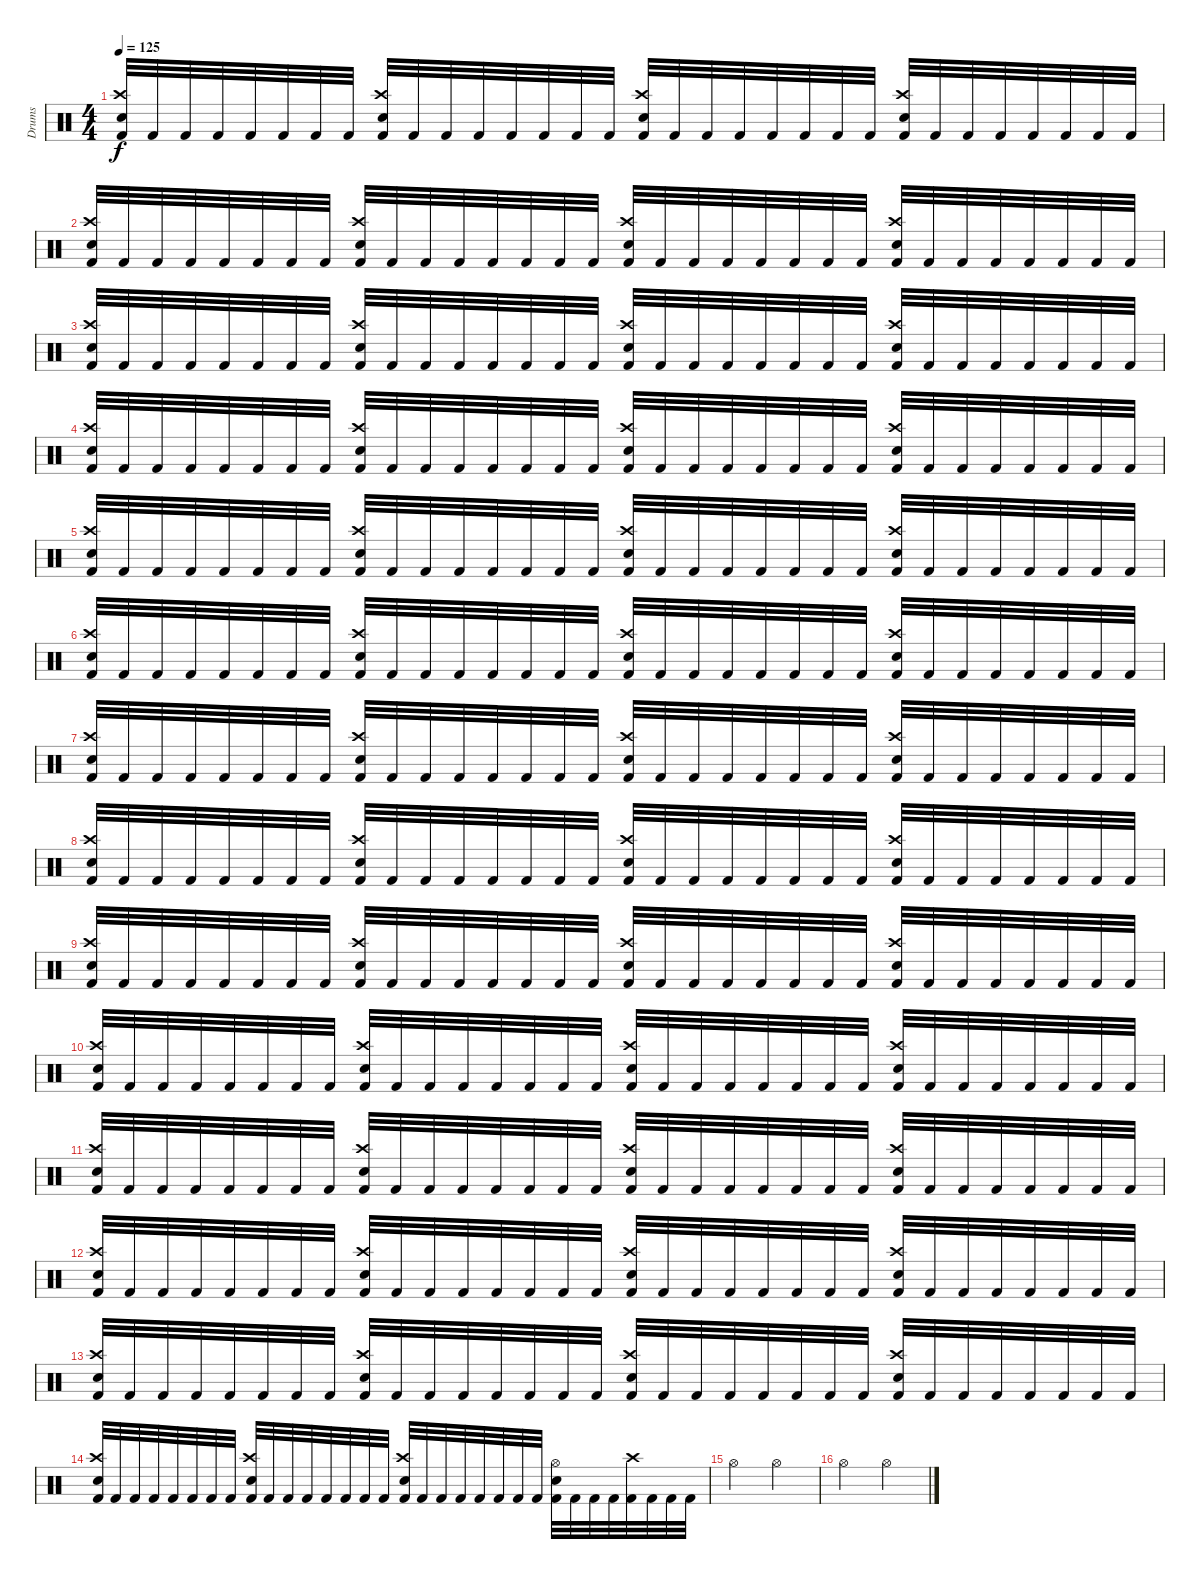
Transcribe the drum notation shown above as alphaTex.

\track ("Drums" "Drums") {instrument percussion}
\staff {score}
\articulation defaults
\ts (4 4)
\tempo 125
\clef neutral
\ks c
("Kick (hit) 2" "Crash high (hit)" "Snare (hit) 2").32{dy f} "Kick (hit) 2".32 "Kick (hit) 2".32 "Kick (hit) 2".32 "Kick (hit) 2".32 "Kick (hit) 2".32 "Kick (hit) 2".32 "Kick (hit) 2".32 ("Kick (hit) 2" "Crash high (hit)" "Snare (hit) 2").32 "Kick (hit) 2".32 "Kick (hit) 2".32 "Kick (hit) 2".32 "Kick (hit) 2".32 "Kick (hit) 2".32 "Kick (hit) 2".32 "Kick (hit) 2".32 ("Kick (hit) 2" "Crash high (hit)" "Snare (hit) 2").32 "Kick (hit) 2".32 "Kick (hit) 2".32 "Kick (hit) 2".32 "Kick (hit) 2".32 "Kick (hit) 2".32 "Kick (hit) 2".32 "Kick (hit) 2".32 ("Kick (hit) 2" "Crash high (hit)" "Snare (hit) 2").32 "Kick (hit) 2".32 "Kick (hit) 2".32 "Kick (hit) 2".32 "Kick (hit) 2".32 "Kick (hit) 2".32 "Kick (hit) 2".32 "Kick (hit) 2".32 |
("Kick (hit) 2" "Crash high (hit)" "Snare (hit) 2").32 "Kick (hit) 2".32 "Kick (hit) 2".32 "Kick (hit) 2".32 "Kick (hit) 2".32 "Kick (hit) 2".32 "Kick (hit) 2".32 "Kick (hit) 2".32 ("Kick (hit) 2" "Crash high (hit)" "Snare (hit) 2").32 "Kick (hit) 2".32 "Kick (hit) 2".32 "Kick (hit) 2".32 "Kick (hit) 2".32 "Kick (hit) 2".32 "Kick (hit) 2".32 "Kick (hit) 2".32 ("Kick (hit) 2" "Crash high (hit)" "Snare (hit) 2").32 "Kick (hit) 2".32 "Kick (hit) 2".32 "Kick (hit) 2".32 "Kick (hit) 2".32 "Kick (hit) 2".32 "Kick (hit) 2".32 "Kick (hit) 2".32 ("Kick (hit) 2" "Crash high (hit)" "Snare (hit) 2").32 "Kick (hit) 2".32 "Kick (hit) 2".32 "Kick (hit) 2".32 "Kick (hit) 2".32 "Kick (hit) 2".32 "Kick (hit) 2".32 "Kick (hit) 2".32 |
("Kick (hit) 2" "Crash high (hit)" "Snare (hit) 2").32 "Kick (hit) 2".32 "Kick (hit) 2".32 "Kick (hit) 2".32 "Kick (hit) 2".32 "Kick (hit) 2".32 "Kick (hit) 2".32 "Kick (hit) 2".32 ("Kick (hit) 2" "Crash high (hit)" "Snare (hit) 2").32 "Kick (hit) 2".32 "Kick (hit) 2".32 "Kick (hit) 2".32 "Kick (hit) 2".32 "Kick (hit) 2".32 "Kick (hit) 2".32 "Kick (hit) 2".32 ("Kick (hit) 2" "Crash high (hit)" "Snare (hit) 2").32 "Kick (hit) 2".32 "Kick (hit) 2".32 "Kick (hit) 2".32 "Kick (hit) 2".32 "Kick (hit) 2".32 "Kick (hit) 2".32 "Kick (hit) 2".32 ("Kick (hit) 2" "Crash high (hit)" "Snare (hit) 2").32 "Kick (hit) 2".32 "Kick (hit) 2".32 "Kick (hit) 2".32 "Kick (hit) 2".32 "Kick (hit) 2".32 "Kick (hit) 2".32 "Kick (hit) 2".32 |
("Kick (hit) 2" "Crash high (hit)" "Snare (hit) 2").32 "Kick (hit) 2".32 "Kick (hit) 2".32 "Kick (hit) 2".32 "Kick (hit) 2".32 "Kick (hit) 2".32 "Kick (hit) 2".32 "Kick (hit) 2".32 ("Kick (hit) 2" "Crash high (hit)" "Snare (hit) 2").32 "Kick (hit) 2".32 "Kick (hit) 2".32 "Kick (hit) 2".32 "Kick (hit) 2".32 "Kick (hit) 2".32 "Kick (hit) 2".32 "Kick (hit) 2".32 ("Kick (hit) 2" "Crash high (hit)" "Snare (hit) 2").32 "Kick (hit) 2".32 "Kick (hit) 2".32 "Kick (hit) 2".32 "Kick (hit) 2".32 "Kick (hit) 2".32 "Kick (hit) 2".32 "Kick (hit) 2".32 ("Kick (hit) 2" "Crash high (hit)" "Snare (hit) 2").32 "Kick (hit) 2".32 "Kick (hit) 2".32 "Kick (hit) 2".32 "Kick (hit) 2".32 "Kick (hit) 2".32 "Kick (hit) 2".32 "Kick (hit) 2".32 |
("Kick (hit) 2" "Crash high (hit)" "Snare (hit) 2").32 "Kick (hit) 2".32 "Kick (hit) 2".32 "Kick (hit) 2".32 "Kick (hit) 2".32 "Kick (hit) 2".32 "Kick (hit) 2".32 "Kick (hit) 2".32 ("Kick (hit) 2" "Crash high (hit)" "Snare (hit) 2").32 "Kick (hit) 2".32 "Kick (hit) 2".32 "Kick (hit) 2".32 "Kick (hit) 2".32 "Kick (hit) 2".32 "Kick (hit) 2".32 "Kick (hit) 2".32 ("Kick (hit) 2" "Crash high (hit)" "Snare (hit) 2").32 "Kick (hit) 2".32 "Kick (hit) 2".32 "Kick (hit) 2".32 "Kick (hit) 2".32 "Kick (hit) 2".32 "Kick (hit) 2".32 "Kick (hit) 2".32 ("Kick (hit) 2" "Crash high (hit)" "Snare (hit) 2").32 "Kick (hit) 2".32 "Kick (hit) 2".32 "Kick (hit) 2".32 "Kick (hit) 2".32 "Kick (hit) 2".32 "Kick (hit) 2".32 "Kick (hit) 2".32 |
("Kick (hit) 2" "Crash high (hit)" "Snare (hit) 2").32 "Kick (hit) 2".32 "Kick (hit) 2".32 "Kick (hit) 2".32 "Kick (hit) 2".32 "Kick (hit) 2".32 "Kick (hit) 2".32 "Kick (hit) 2".32 ("Kick (hit) 2" "Crash high (hit)" "Snare (hit) 2").32 "Kick (hit) 2".32 "Kick (hit) 2".32 "Kick (hit) 2".32 "Kick (hit) 2".32 "Kick (hit) 2".32 "Kick (hit) 2".32 "Kick (hit) 2".32 ("Kick (hit) 2" "Crash high (hit)" "Snare (hit) 2").32 "Kick (hit) 2".32 "Kick (hit) 2".32 "Kick (hit) 2".32 "Kick (hit) 2".32 "Kick (hit) 2".32 "Kick (hit) 2".32 "Kick (hit) 2".32 ("Kick (hit) 2" "Crash high (hit)" "Snare (hit) 2").32 "Kick (hit) 2".32 "Kick (hit) 2".32 "Kick (hit) 2".32 "Kick (hit) 2".32 "Kick (hit) 2".32 "Kick (hit) 2".32 "Kick (hit) 2".32 |
("Kick (hit) 2" "Crash high (hit)" "Snare (hit) 2").32 "Kick (hit) 2".32 "Kick (hit) 2".32 "Kick (hit) 2".32 "Kick (hit) 2".32 "Kick (hit) 2".32 "Kick (hit) 2".32 "Kick (hit) 2".32 ("Kick (hit) 2" "Crash high (hit)" "Snare (hit) 2").32 "Kick (hit) 2".32 "Kick (hit) 2".32 "Kick (hit) 2".32 "Kick (hit) 2".32 "Kick (hit) 2".32 "Kick (hit) 2".32 "Kick (hit) 2".32 ("Kick (hit) 2" "Crash high (hit)" "Snare (hit) 2").32 "Kick (hit) 2".32 "Kick (hit) 2".32 "Kick (hit) 2".32 "Kick (hit) 2".32 "Kick (hit) 2".32 "Kick (hit) 2".32 "Kick (hit) 2".32 ("Kick (hit) 2" "Crash high (hit)" "Snare (hit) 2").32 "Kick (hit) 2".32 "Kick (hit) 2".32 "Kick (hit) 2".32 "Kick (hit) 2".32 "Kick (hit) 2".32 "Kick (hit) 2".32 "Kick (hit) 2".32 |
("Kick (hit) 2" "Crash high (hit)" "Snare (hit) 2").32 "Kick (hit) 2".32 "Kick (hit) 2".32 "Kick (hit) 2".32 "Kick (hit) 2".32 "Kick (hit) 2".32 "Kick (hit) 2".32 "Kick (hit) 2".32 ("Kick (hit) 2" "Crash high (hit)" "Snare (hit) 2").32 "Kick (hit) 2".32 "Kick (hit) 2".32 "Kick (hit) 2".32 "Kick (hit) 2".32 "Kick (hit) 2".32 "Kick (hit) 2".32 "Kick (hit) 2".32 ("Kick (hit) 2" "Crash high (hit)" "Snare (hit) 2").32 "Kick (hit) 2".32 "Kick (hit) 2".32 "Kick (hit) 2".32 "Kick (hit) 2".32 "Kick (hit) 2".32 "Kick (hit) 2".32 "Kick (hit) 2".32 ("Kick (hit) 2" "Crash high (hit)" "Snare (hit) 2").32 "Kick (hit) 2".32 "Kick (hit) 2".32 "Kick (hit) 2".32 "Kick (hit) 2".32 "Kick (hit) 2".32 "Kick (hit) 2".32 "Kick (hit) 2".32 |
("Kick (hit) 2" "Crash high (hit)" "Snare (hit) 2").32 "Kick (hit) 2".32 "Kick (hit) 2".32 "Kick (hit) 2".32 "Kick (hit) 2".32 "Kick (hit) 2".32 "Kick (hit) 2".32 "Kick (hit) 2".32 ("Kick (hit) 2" "Crash high (hit)" "Snare (hit) 2").32 "Kick (hit) 2".32 "Kick (hit) 2".32 "Kick (hit) 2".32 "Kick (hit) 2".32 "Kick (hit) 2".32 "Kick (hit) 2".32 "Kick (hit) 2".32 ("Kick (hit) 2" "Crash high (hit)" "Snare (hit) 2").32 "Kick (hit) 2".32 "Kick (hit) 2".32 "Kick (hit) 2".32 "Kick (hit) 2".32 "Kick (hit) 2".32 "Kick (hit) 2".32 "Kick (hit) 2".32 ("Kick (hit) 2" "Crash high (hit)" "Snare (hit) 2").32 "Kick (hit) 2".32 "Kick (hit) 2".32 "Kick (hit) 2".32 "Kick (hit) 2".32 "Kick (hit) 2".32 "Kick (hit) 2".32 "Kick (hit) 2".32 |
("Kick (hit) 2" "Crash high (hit)" "Snare (hit) 2").32 "Kick (hit) 2".32 "Kick (hit) 2".32 "Kick (hit) 2".32 "Kick (hit) 2".32 "Kick (hit) 2".32 "Kick (hit) 2".32 "Kick (hit) 2".32 ("Kick (hit) 2" "Crash high (hit)" "Snare (hit) 2").32 "Kick (hit) 2".32 "Kick (hit) 2".32 "Kick (hit) 2".32 "Kick (hit) 2".32 "Kick (hit) 2".32 "Kick (hit) 2".32 "Kick (hit) 2".32 ("Kick (hit) 2" "Crash high (hit)" "Snare (hit) 2").32 "Kick (hit) 2".32 "Kick (hit) 2".32 "Kick (hit) 2".32 "Kick (hit) 2".32 "Kick (hit) 2".32 "Kick (hit) 2".32 "Kick (hit) 2".32 ("Kick (hit) 2" "Crash high (hit)" "Snare (hit) 2").32 "Kick (hit) 2".32 "Kick (hit) 2".32 "Kick (hit) 2".32 "Kick (hit) 2".32 "Kick (hit) 2".32 "Kick (hit) 2".32 "Kick (hit) 2".32 |
("Kick (hit) 2" "Crash high (hit)" "Snare (hit) 2").32 "Kick (hit) 2".32 "Kick (hit) 2".32 "Kick (hit) 2".32 "Kick (hit) 2".32 "Kick (hit) 2".32 "Kick (hit) 2".32 "Kick (hit) 2".32 ("Kick (hit) 2" "Crash high (hit)" "Snare (hit) 2").32 "Kick (hit) 2".32 "Kick (hit) 2".32 "Kick (hit) 2".32 "Kick (hit) 2".32 "Kick (hit) 2".32 "Kick (hit) 2".32 "Kick (hit) 2".32 ("Kick (hit) 2" "Crash high (hit)" "Snare (hit) 2").32 "Kick (hit) 2".32 "Kick (hit) 2".32 "Kick (hit) 2".32 "Kick (hit) 2".32 "Kick (hit) 2".32 "Kick (hit) 2".32 "Kick (hit) 2".32 ("Kick (hit) 2" "Crash high (hit)" "Snare (hit) 2").32 "Kick (hit) 2".32 "Kick (hit) 2".32 "Kick (hit) 2".32 "Kick (hit) 2".32 "Kick (hit) 2".32 "Kick (hit) 2".32 "Kick (hit) 2".32 |
("Kick (hit) 2" "Crash high (hit)" "Snare (hit) 2").32 "Kick (hit) 2".32 "Kick (hit) 2".32 "Kick (hit) 2".32 "Kick (hit) 2".32 "Kick (hit) 2".32 "Kick (hit) 2".32 "Kick (hit) 2".32 ("Kick (hit) 2" "Crash high (hit)" "Snare (hit) 2").32 "Kick (hit) 2".32 "Kick (hit) 2".32 "Kick (hit) 2".32 "Kick (hit) 2".32 "Kick (hit) 2".32 "Kick (hit) 2".32 "Kick (hit) 2".32 ("Kick (hit) 2" "Crash high (hit)" "Snare (hit) 2").32 "Kick (hit) 2".32 "Kick (hit) 2".32 "Kick (hit) 2".32 "Kick (hit) 2".32 "Kick (hit) 2".32 "Kick (hit) 2".32 "Kick (hit) 2".32 ("Kick (hit) 2" "Crash high (hit)" "Snare (hit) 2").32 "Kick (hit) 2".32 "Kick (hit) 2".32 "Kick (hit) 2".32 "Kick (hit) 2".32 "Kick (hit) 2".32 "Kick (hit) 2".32 "Kick (hit) 2".32 |
("Kick (hit) 2" "Crash high (hit)" "Snare (hit) 2").32 "Kick (hit) 2".32 "Kick (hit) 2".32 "Kick (hit) 2".32 "Kick (hit) 2".32 "Kick (hit) 2".32 "Kick (hit) 2".32 "Kick (hit) 2".32 ("Kick (hit) 2" "Crash high (hit)" "Snare (hit) 2").32 "Kick (hit) 2".32 "Kick (hit) 2".32 "Kick (hit) 2".32 "Kick (hit) 2".32 "Kick (hit) 2".32 "Kick (hit) 2".32 "Kick (hit) 2".32 ("Kick (hit) 2" "Crash high (hit)" "Snare (hit) 2").32 "Kick (hit) 2".32 "Kick (hit) 2".32 "Kick (hit) 2".32 "Kick (hit) 2".32 "Kick (hit) 2".32 "Kick (hit) 2".32 "Kick (hit) 2".32 ("Kick (hit) 2" "Crash high (hit)" "Snare (hit) 2").32 "Kick (hit) 2".32 "Kick (hit) 2".32 "Kick (hit) 2".32 "Kick (hit) 2".32 "Kick (hit) 2".32 "Kick (hit) 2".32 "Kick (hit) 2".32 |
("Kick (hit) 2" "Crash high (hit)" "Snare (hit) 2").32 "Kick (hit) 2".32 "Kick (hit) 2".32 "Kick (hit) 2".32 "Kick (hit) 2".32 "Kick (hit) 2".32 "Kick (hit) 2".32 "Kick (hit) 2".32 ("Kick (hit) 2" "Crash high (hit)" "Snare (hit) 2").32 "Kick (hit) 2".32 "Kick (hit) 2".32 "Kick (hit) 2".32 "Kick (hit) 2".32 "Kick (hit) 2".32 "Kick (hit) 2".32 "Kick (hit) 2".32 ("Kick (hit) 2" "Crash high (hit)" "Snare (hit) 2").32 "Kick (hit) 2".32 "Kick (hit) 2".32 "Kick (hit) 2".32 "Kick (hit) 2".32 "Kick (hit) 2".32 "Kick (hit) 2".32 "Kick (hit) 2".32 ("Kick (hit) 2" "Hi-Hat (open)" "Snare (hit) 2").32 "Kick (hit) 2".32 "Kick (hit) 2".32 "Kick (hit) 2".32 ("Kick (hit) 2" "Crash high (hit)").32 "Kick (hit) 2".32 "Kick (hit) 2".32 "Kick (hit) 2".32 |
"Hi-Hat (open)".2 "Hi-Hat (open)".2 |
"Hi-Hat (open)".2 "Hi-Hat (open)".2
